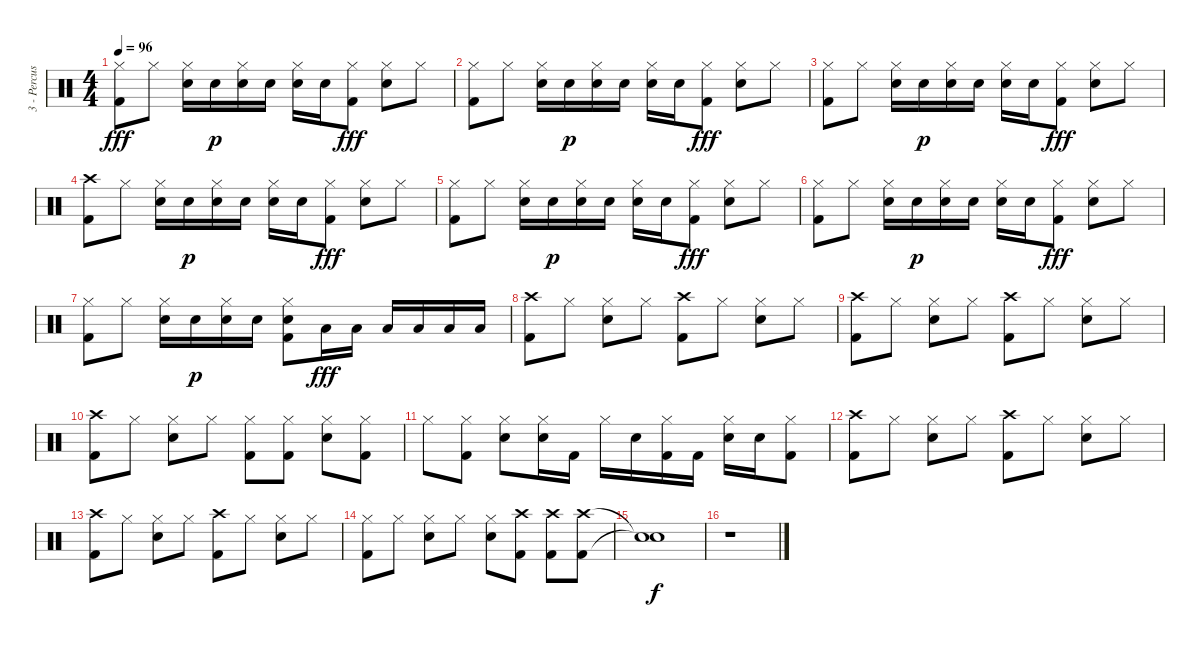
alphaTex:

\track ("3 - Percussion" "3 - Percus") {instrument percussion}
\staff {score}
\articulation defaults
\ts (4 4)
\tempo 96
\clef neutral
\ks c
("Hi-Hat (closed)" "Kick (hit) 2").8{dy fff} "Hi-Hat (closed)".8 ("Hi-Hat (closed)" "Snare (hit) 2").16 "Snare (hit) 2".16{dy p} ("Hi-Hat (closed)" "Snare (hit) 2").16 "Snare (hit) 2".16 ("Hi-Hat (closed)" "Snare (hit) 2").16 "Snare (hit) 2".16 ("Hi-Hat (closed)" "Kick (hit) 2").8{dy fff} ("Hi-Hat (closed)" "Snare (hit) 2").8 "Hi-Hat (closed)".8 |
("Hi-Hat (closed)" "Kick (hit) 2").8 "Hi-Hat (closed)".8 ("Hi-Hat (closed)" "Snare (hit) 2").16 "Snare (hit) 2".16{dy p} ("Hi-Hat (closed)" "Snare (hit) 2").16 "Snare (hit) 2".16 ("Hi-Hat (closed)" "Snare (hit) 2").16 "Snare (hit) 2".16 ("Hi-Hat (closed)" "Kick (hit) 2").8{dy fff} ("Hi-Hat (closed)" "Snare (hit) 2").8 "Hi-Hat (closed)".8 |
("Hi-Hat (closed)" "Kick (hit) 2").8 "Hi-Hat (closed)".8 ("Hi-Hat (closed)" "Snare (hit) 2").16 "Snare (hit) 2".16{dy p} ("Hi-Hat (closed)" "Snare (hit) 2").16 "Snare (hit) 2".16 ("Hi-Hat (closed)" "Snare (hit) 2").16 "Snare (hit) 2".16 ("Hi-Hat (closed)" "Kick (hit) 2").8{dy fff} ("Hi-Hat (closed)" "Snare (hit) 2").8 "Hi-Hat (closed)".8 |
("Crash high (hit)" "Kick (hit) 2").8 "Hi-Hat (closed)".8 ("Hi-Hat (closed)" "Snare (hit) 2").16 "Snare (hit) 2".16{dy p} ("Hi-Hat (closed)" "Snare (hit) 2").16 "Snare (hit) 2".16 ("Hi-Hat (closed)" "Snare (hit) 2").16 "Snare (hit) 2".16 ("Hi-Hat (closed)" "Kick (hit) 2").8{dy fff} ("Hi-Hat (closed)" "Snare (hit) 2").8 "Hi-Hat (closed)".8 |
("Hi-Hat (closed)" "Kick (hit) 2").8 "Hi-Hat (closed)".8 ("Hi-Hat (closed)" "Snare (hit) 2").16 "Snare (hit) 2".16{dy p} ("Hi-Hat (closed)" "Snare (hit) 2").16 "Snare (hit) 2".16 ("Hi-Hat (closed)" "Snare (hit) 2").16 "Snare (hit) 2".16 ("Hi-Hat (closed)" "Kick (hit) 2").8{dy fff} ("Hi-Hat (closed)" "Snare (hit) 2").8 "Hi-Hat (closed)".8 |
("Hi-Hat (closed)" "Kick (hit) 2").8 "Hi-Hat (closed)".8 ("Hi-Hat (closed)" "Snare (hit) 2").16 "Snare (hit) 2".16{dy p} ("Hi-Hat (closed)" "Snare (hit) 2").16 "Snare (hit) 2".16 ("Hi-Hat (closed)" "Snare (hit) 2").16 "Snare (hit) 2".16 ("Hi-Hat (closed)" "Kick (hit) 2").8{dy fff} ("Hi-Hat (closed)" "Snare (hit) 2").8 "Hi-Hat (closed)".8 |
("Hi-Hat (closed)" "Kick (hit) 2").8 "Hi-Hat (closed)".8 ("Hi-Hat (closed)" "Snare (hit) 2").16 "Snare (hit) 2".16{dy p} ("Hi-Hat (closed)" "Snare (hit) 2").16 "Snare (hit) 2".16 ("Hi-Hat (closed)" "Snare (hit) 2" "Kick (hit) 2").8 "Low Floor Tom (hit)".16{dy fff} "Low Floor Tom (hit)".16 "Low Floor Tom (hit)".16 "Low Floor Tom (hit)".16 "Low Floor Tom (hit)".16 "Low Floor Tom (hit)".16 |
("Crash high (hit)" "Kick (hit) 2").8 "Hi-Hat (closed)".8 ("Hi-Hat (closed)" "Snare (hit) 2").8 "Hi-Hat (closed)".8 ("Crash high (hit)" "Kick (hit) 2").8 "Hi-Hat (closed)".8 ("Hi-Hat (closed)" "Snare (hit) 2").8 "Hi-Hat (closed)".8 |
("Crash high (hit)" "Kick (hit) 2").8 "Hi-Hat (closed)".8 ("Hi-Hat (closed)" "Snare (hit) 2").8 "Hi-Hat (closed)".8 ("Crash high (hit)" "Kick (hit) 2").8 "Hi-Hat (closed)".8 ("Hi-Hat (closed)" "Snare (hit) 2").8 "Hi-Hat (closed)".8 |
("Crash high (hit)" "Kick (hit) 2").8 "Hi-Hat (closed)".8 ("Hi-Hat (closed)" "Snare (hit) 2").8 "Hi-Hat (closed)".8 ("Hi-Hat (closed)" "Kick (hit) 2").8 ("Hi-Hat (closed)" "Kick (hit) 2").8 ("Hi-Hat (closed)" "Snare (hit) 2").8 ("Hi-Hat (closed)" "Kick (hit) 2").8 |
"Hi-Hat (closed)".8 ("Hi-Hat (closed)" "Kick (hit) 2").8 ("Hi-Hat (closed)" "Snare (hit) 2").8 ("Hi-Hat (closed)" "Snare (hit) 2").16 "Kick (hit) 2".16 "Hi-Hat (closed)".16 "Snare (hit) 2".16 ("Hi-Hat (closed)" "Kick (hit) 2").16 "Kick (hit) 2".16 ("Hi-Hat (closed)" "Snare (hit) 2").16 "Snare (hit) 2".16 ("Hi-Hat (closed)" "Kick (hit) 2").8 |
("Crash high (hit)" "Kick (hit) 2").8 "Hi-Hat (closed)".8 ("Hi-Hat (closed)" "Snare (hit) 2").8 "Hi-Hat (closed)".8 ("Crash high (hit)" "Kick (hit) 2").8 "Hi-Hat (closed)".8 ("Hi-Hat (closed)" "Snare (hit) 2").8 "Hi-Hat (closed)".8 |
("Crash high (hit)" "Kick (hit) 2").8 "Hi-Hat (closed)".8 ("Hi-Hat (closed)" "Snare (hit) 2").8 "Hi-Hat (closed)".8 ("Crash high (hit)" "Kick (hit) 2").8 "Hi-Hat (closed)".8 ("Hi-Hat (closed)" "Snare (hit) 2").8 "Hi-Hat (closed)".8 |
("Hi-Hat (closed)" "Kick (hit) 2").8 "Hi-Hat (closed)".8 ("Hi-Hat (closed)" "Snare (hit) 2").8 "Hi-Hat (closed)".8 ("Hi-Hat (closed)" "Snare (hit) 2").8 ("Crash high (hit)" "Kick (hit) 2").8 ("Crash high (hit)" "Kick (hit) 2").8 ("Crash high (hit)" "Kick (hit) 2").8 |
("Snare (hit)"{t} "Snare (hit)"{t}).1{dy f} |
r.1
